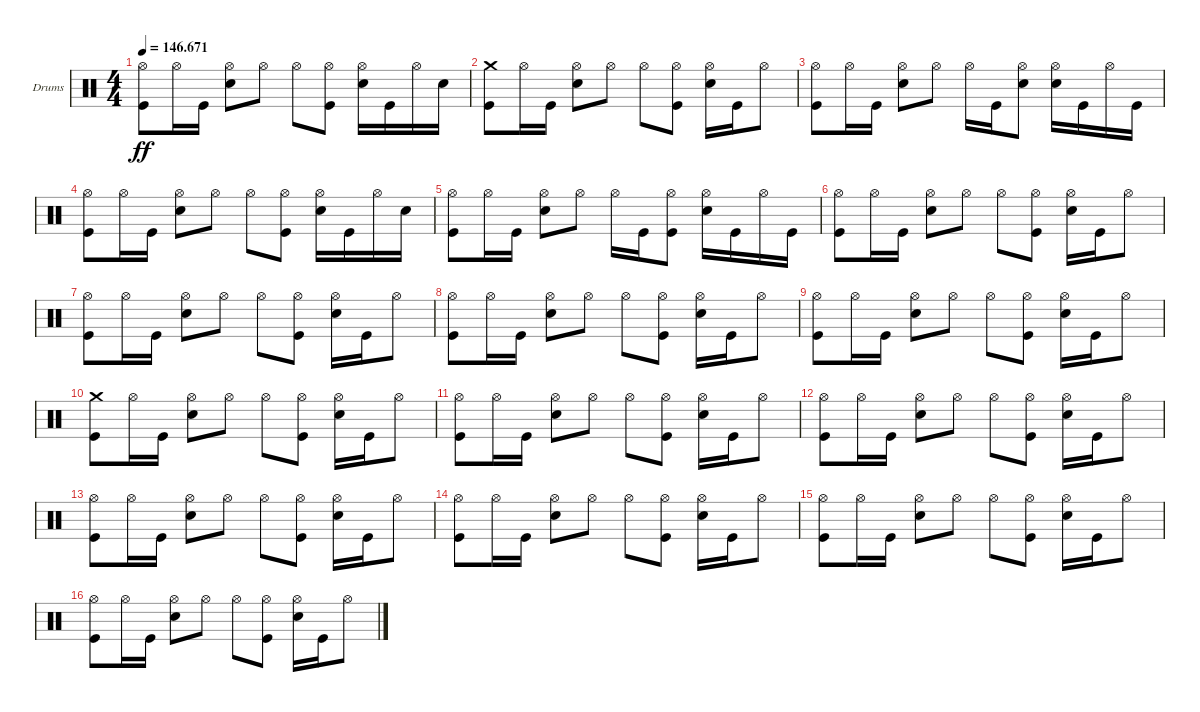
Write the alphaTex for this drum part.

\bracketExtendMode groupsimilarinstruments
\firstSystemTrackNameOrientation horizontal
\otherSystemsTrackNameOrientation horizontal
\track ("Drumkit" "Drums") {instrument percussion}
\staff {score}
\articulation defaults
\ts (4 4)
\tempo
146.671
\accidentals auto
\clef neutral
\ottava regular
\simile none
\ks c
("Hi-Hat (open)" "Kick (hit)").8{dy ff} "Hi-Hat (open)".16 "Kick (hit)".16 ("Hi-Hat (open)" "Snare (hit) 2").8 "Hi-Hat (open)".8 "Hi-Hat (open)".8 ("Hi-Hat (open)" "Kick (hit)").8 ("Hi-Hat (open)" "Snare (hit) 2").16 "Kick (hit)".16 "Hi-Hat (open)".16 "Snare (hit) 2".16 |
("Kick (hit)" "Crash medium (hit)").8 "Hi-Hat (open)".16 "Kick (hit)".16 ("Hi-Hat (open)" "Snare (hit) 2").8 "Hi-Hat (open)".8 "Hi-Hat (open)".8 ("Hi-Hat (open)" "Kick (hit)").8 ("Hi-Hat (open)" "Snare (hit) 2").16 "Kick (hit)".16 "Hi-Hat (open)".8 |
("Hi-Hat (open)" "Kick (hit)").8 "Hi-Hat (open)".16 "Kick (hit)".16 ("Hi-Hat (open)" "Snare (hit) 2").8 "Hi-Hat (open)".8 "Hi-Hat (open)".16 "Kick (hit)".16 ("Hi-Hat (open)" "Snare (hit) 2").8 ("Hi-Hat (open)" "Snare (hit) 2").16 "Kick (hit)".16 "Hi-Hat (open)".16 "Kick (hit)".16 |
("Hi-Hat (open)" "Kick (hit)").8 "Hi-Hat (open)".16 "Kick (hit)".16 ("Hi-Hat (open)" "Snare (hit) 2").8 "Hi-Hat (open)".8 "Hi-Hat (open)".8 ("Hi-Hat (open)" "Kick (hit)").8 ("Hi-Hat (open)" "Snare (hit) 2").16 "Kick (hit)".16 "Hi-Hat (open)".16 "Snare (hit) 2".16 |
("Hi-Hat (open)" "Kick (hit)").8 "Hi-Hat (open)".16 "Kick (hit)".16 ("Hi-Hat (open)" "Snare (hit) 2").8 "Hi-Hat (open)".8 "Hi-Hat (open)".16 "Kick (hit)".16 ("Hi-Hat (open)" "Kick (hit)").8 ("Hi-Hat (open)" "Snare (hit) 2").16 "Kick (hit)".16 "Hi-Hat (open)".16 "Kick (hit)".16 |
("Hi-Hat (open)" "Kick (hit)").8 "Hi-Hat (open)".16 "Kick (hit)".16 ("Hi-Hat (open)" "Snare (hit) 2").8 "Hi-Hat (open)".8 "Hi-Hat (open)".8 ("Hi-Hat (open)" "Kick (hit)").8 ("Hi-Hat (open)" "Snare (hit) 2").16 "Kick (hit)".16 "Hi-Hat (open)".8 |
("Hi-Hat (open)" "Kick (hit)").8 "Hi-Hat (open)".16 "Kick (hit)".16 ("Hi-Hat (open)" "Snare (hit) 2").8 "Hi-Hat (open)".8 "Hi-Hat (open)".8 ("Hi-Hat (open)" "Kick (hit)").8 ("Hi-Hat (open)" "Snare (hit) 2").16 "Kick (hit)".16 "Hi-Hat (open)".8 |
("Hi-Hat (open)" "Kick (hit)").8 "Hi-Hat (open)".16 "Kick (hit)".16 ("Hi-Hat (open)" "Snare (hit) 2").8 "Hi-Hat (open)".8 "Hi-Hat (open)".8 ("Hi-Hat (open)" "Kick (hit)").8 ("Hi-Hat (open)" "Snare (hit) 2").16 "Kick (hit)".16 "Hi-Hat (open)".8 |
("Hi-Hat (open)" "Kick (hit)").8 "Hi-Hat (open)".16 "Kick (hit)".16 ("Hi-Hat (open)" "Snare (hit) 2").8 "Hi-Hat (open)".8 "Hi-Hat (open)".8 ("Hi-Hat (open)" "Kick (hit)").8 ("Hi-Hat (open)" "Snare (hit) 2").16 "Kick (hit)".16 "Hi-Hat (open)".8 |
("Kick (hit)" "Crash medium (hit)").8 "Hi-Hat (open)".16 "Kick (hit)".16 ("Hi-Hat (open)" "Snare (hit) 2").8 "Hi-Hat (open)".8 "Hi-Hat (open)".8 ("Hi-Hat (open)" "Kick (hit)").8 ("Hi-Hat (open)" "Snare (hit) 2").16 "Kick (hit)".16 "Hi-Hat (open)".8 |
("Hi-Hat (open)" "Kick (hit)").8 "Hi-Hat (open)".16 "Kick (hit)".16 ("Hi-Hat (open)" "Snare (hit) 2").8 "Hi-Hat (open)".8 "Hi-Hat (open)".8 ("Hi-Hat (open)" "Kick (hit)").8 ("Hi-Hat (open)" "Snare (hit) 2").16 "Kick (hit)".16 "Hi-Hat (open)".8 |
("Hi-Hat (open)" "Kick (hit)").8 "Hi-Hat (open)".16 "Kick (hit)".16 ("Hi-Hat (open)" "Snare (hit) 2").8 "Hi-Hat (open)".8 "Hi-Hat (open)".8 ("Hi-Hat (open)" "Kick (hit)").8 ("Hi-Hat (open)" "Snare (hit) 2").16 "Kick (hit)".16 "Hi-Hat (open)".8 |
("Hi-Hat (open)" "Kick (hit)").8 "Hi-Hat (open)".16 "Kick (hit)".16 ("Hi-Hat (open)" "Snare (hit) 2").8 "Hi-Hat (open)".8 "Hi-Hat (open)".8 ("Hi-Hat (open)" "Kick (hit)").8 ("Hi-Hat (open)" "Snare (hit) 2").16 "Kick (hit)".16 "Hi-Hat (open)".8 |
("Hi-Hat (open)" "Kick (hit)").8 "Hi-Hat (open)".16 "Kick (hit)".16 ("Hi-Hat (open)" "Snare (hit) 2").8 "Hi-Hat (open)".8 "Hi-Hat (open)".8 ("Hi-Hat (open)" "Kick (hit)").8 ("Hi-Hat (open)" "Snare (hit) 2").16 "Kick (hit)".16 "Hi-Hat (open)".8 |
("Hi-Hat (open)" "Kick (hit)").8 "Hi-Hat (open)".16 "Kick (hit)".16 ("Hi-Hat (open)" "Snare (hit) 2").8 "Hi-Hat (open)".8 "Hi-Hat (open)".8 ("Hi-Hat (open)" "Kick (hit)").8 ("Hi-Hat (open)" "Snare (hit) 2").16 "Kick (hit)".16 "Hi-Hat (open)".8 |
("Hi-Hat (open)" "Kick (hit)").8 "Hi-Hat (open)".16 "Kick (hit)".16 ("Hi-Hat (open)" "Snare (hit) 2").8 "Hi-Hat (open)".8 "Hi-Hat (open)".8 ("Hi-Hat (open)" "Kick (hit)").8 ("Hi-Hat (open)" "Snare (hit) 2").16 "Kick (hit)".16 "Hi-Hat (open)".8
